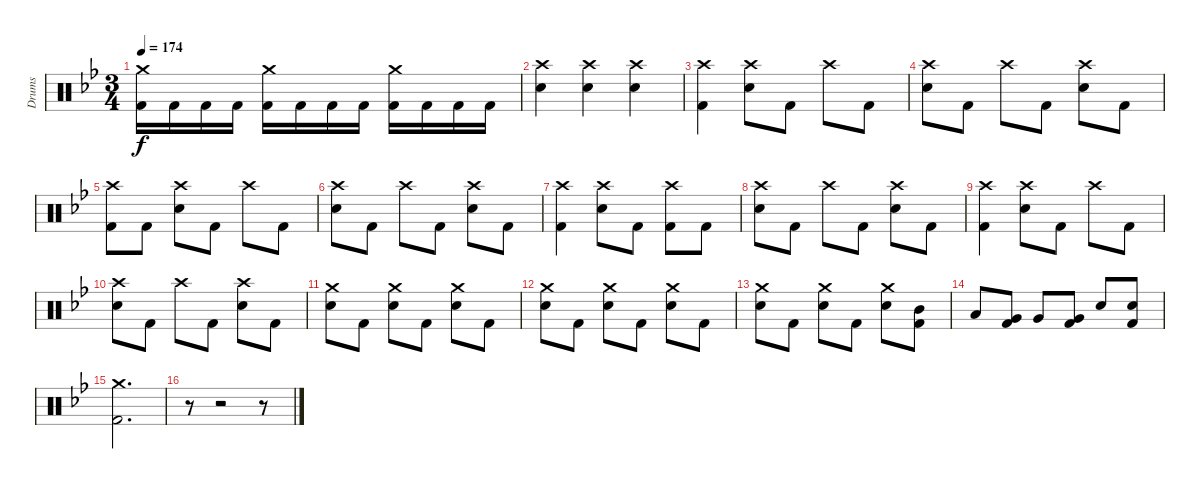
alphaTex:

\bracketExtendMode groupsimilarinstruments
\track ("Drumkit" "Drums") {instrument percussion}
\staff {score}
\articulation defaults
\ts (3 4)
\tempo 174
\clef neutral
\ks bb
("Crash medium (hit)"{acc forcenatural} "Kick (hit) 2"{acc forcenatural}).16{dy f} "Kick (hit) 2"{acc forcenatural}.16 "Kick (hit) 2"{acc forcenatural}.16 "Kick (hit) 2"{acc forcenatural}.16 ("Crash medium (hit)"{acc forcenatural} "Kick (hit) 2"{acc forcenatural}).16 "Kick (hit) 2"{acc forcenatural}.16 "Kick (hit) 2"{acc forcenatural}.16 "Kick (hit) 2"{acc forcenatural}.16 ("Crash medium (hit)"{acc forcenatural} "Kick (hit) 2"{acc forcenatural}).16 "Kick (hit) 2"{acc forcenatural}.16 "Kick (hit) 2"{acc forcenatural}.16 "Kick (hit) 2"{acc forcenatural}.16 |
("Crash high (hit)"{acc forcenatural} "Snare (hit) 2"{acc forcenatural}).4 ("Crash high (hit)"{acc forcenatural} "Snare (hit) 2"{acc forcenatural}).4 ("Crash high (hit)"{acc forcenatural} "Snare (hit) 2"{acc forcenatural}).4 |
("Crash high (hit)"{acc forcenatural} "Kick (hit) 2"{acc forcenatural}).4 ("Crash high (hit)"{acc forcenatural} "Snare (hit) 2"{acc forcenatural}).8 "Kick (hit) 2"{acc forcenatural}.8 "Crash high (hit)"{acc forcenatural}.8 "Kick (hit) 2"{acc forcenatural}.8 |
("Crash high (hit)"{acc forcenatural} "Snare (hit) 2"{acc forcenatural}).8 "Kick (hit) 2"{acc forcenatural}.8 "Crash high (hit)"{acc forcenatural}.8 "Kick (hit) 2"{acc forcenatural}.8 ("Crash high (hit)"{acc forcenatural} "Snare (hit) 2"{acc forcenatural}).8 "Kick (hit) 2"{acc forcenatural}.8 |
("Crash high (hit)"{acc forcenatural} "Kick (hit) 2"{acc forcenatural}).8 "Kick (hit) 2"{acc forcenatural}.8 ("Crash high (hit)"{acc forcenatural} "Snare (hit) 2"{acc forcenatural}).8 "Kick (hit) 2"{acc forcenatural}.8 "Crash high (hit)"{acc forcenatural}.8 "Kick (hit) 2"{acc forcenatural}.8 |
("Crash high (hit)"{acc forcenatural} "Snare (hit) 2"{acc forcenatural}).8 "Kick (hit) 2"{acc forcenatural}.8 "Crash high (hit)"{acc forcenatural}.8 "Kick (hit) 2"{acc forcenatural}.8 ("Crash high (hit)"{acc forcenatural} "Snare (hit) 2"{acc forcenatural}).8 "Kick (hit) 2"{acc forcenatural}.8 |
("Crash high (hit)"{acc forcenatural} "Kick (hit) 2"{acc forcenatural}).4 ("Crash high (hit)"{acc forcenatural} "Snare (hit) 2"{acc forcenatural}).8 "Kick (hit) 2"{acc forcenatural}.8 ("Crash high (hit)"{acc forcenatural} "Kick (hit) 2"{acc forcenatural}).8 "Kick (hit) 2"{acc forcenatural}.8 |
("Crash high (hit)"{acc forcenatural} "Snare (hit) 2"{acc forcenatural}).8 "Kick (hit) 2"{acc forcenatural}.8 "Crash high (hit)"{acc forcenatural}.8 "Kick (hit) 2"{acc forcenatural}.8 ("Crash high (hit)"{acc forcenatural} "Snare (hit) 2"{acc forcenatural}).8 "Kick (hit) 2"{acc forcenatural}.8 |
("Crash high (hit)"{acc forcenatural} "Kick (hit) 2"{acc forcenatural}).4 ("Crash high (hit)"{acc forcenatural} "Snare (hit) 2"{acc forcenatural}).8 "Kick (hit) 2"{acc forcenatural}.8 "Crash high (hit)"{acc forcenatural}.8 "Kick (hit) 2"{acc forcenatural}.8 |
("Crash high (hit)"{acc forcenatural} "Snare (hit) 2"{acc forcenatural}).8 "Kick (hit) 2"{acc forcenatural}.8 "Crash high (hit)"{acc forcenatural}.8 "Kick (hit) 2"{acc forcenatural}.8 ("Crash high (hit)"{acc forcenatural} "Snare (hit) 2"{acc forcenatural}).8 "Kick (hit) 2"{acc forcenatural}.8 |
("Crash medium (hit)"{acc forcenatural} "Snare (hit) 2"{acc forcenatural}).8 "Kick (hit) 2"{acc forcenatural}.8 ("Crash medium (hit)"{acc forcenatural} "Snare (hit) 2"{acc forcenatural}).8 "Kick (hit) 2"{acc forcenatural}.8 ("Crash medium (hit)"{acc forcenatural} "Snare (hit) 2"{acc forcenatural}).8 "Kick (hit) 2"{acc forcenatural}.8 |
("Crash medium (hit)"{acc forcenatural} "Snare (hit) 2"{acc forcenatural}).8 "Kick (hit) 2"{acc forcenatural}.8 ("Crash medium (hit)"{acc forcenatural} "Snare (hit) 2"{acc forcenatural}).8 "Kick (hit) 2"{acc forcenatural}.8 ("Crash medium (hit)"{acc forcenatural} "Snare (hit) 2"{acc forcenatural}).8 "Kick (hit) 2"{acc forcenatural}.8 |
("Crash medium (hit)"{acc forcenatural} "Snare (hit) 2"{acc forcenatural}).8 "Kick (hit) 2"{acc forcenatural}.8 ("Crash medium (hit)"{acc forcenatural} "Snare (hit) 2"{acc forcenatural}).8 "Kick (hit) 2"{acc forcenatural}.8 ("Crash medium (hit)"{acc forcenatural} "Snare (hit) 2"{acc forcenatural}).8 ("Mid Tom (hit)"{acc forcenatural} "Kick (hit) 2"{acc forcenatural}).8 |
"Low Tom (hit)"{acc forcenatural}.8 ("Very Low Tom (hit)"{acc forcenatural} "Kick (hit) 2"{acc forcenatural}).8 "Very Low Tom (hit)"{acc forcenatural}.8 ("Very Low Tom (hit)"{acc forcenatural} "Kick (hit) 2"{acc forcenatural}).8 "Snare (hit) 2"{acc forcenatural}.8 ("Snare (hit) 2"{acc forcenatural} "Kick (hit) 2"{acc forcenatural}).8 |
("Crash medium (hit)"{acc forcenatural} "Kick (hit) 2"{acc forcenatural}).2{d} |
r.8 r.2 r.8
